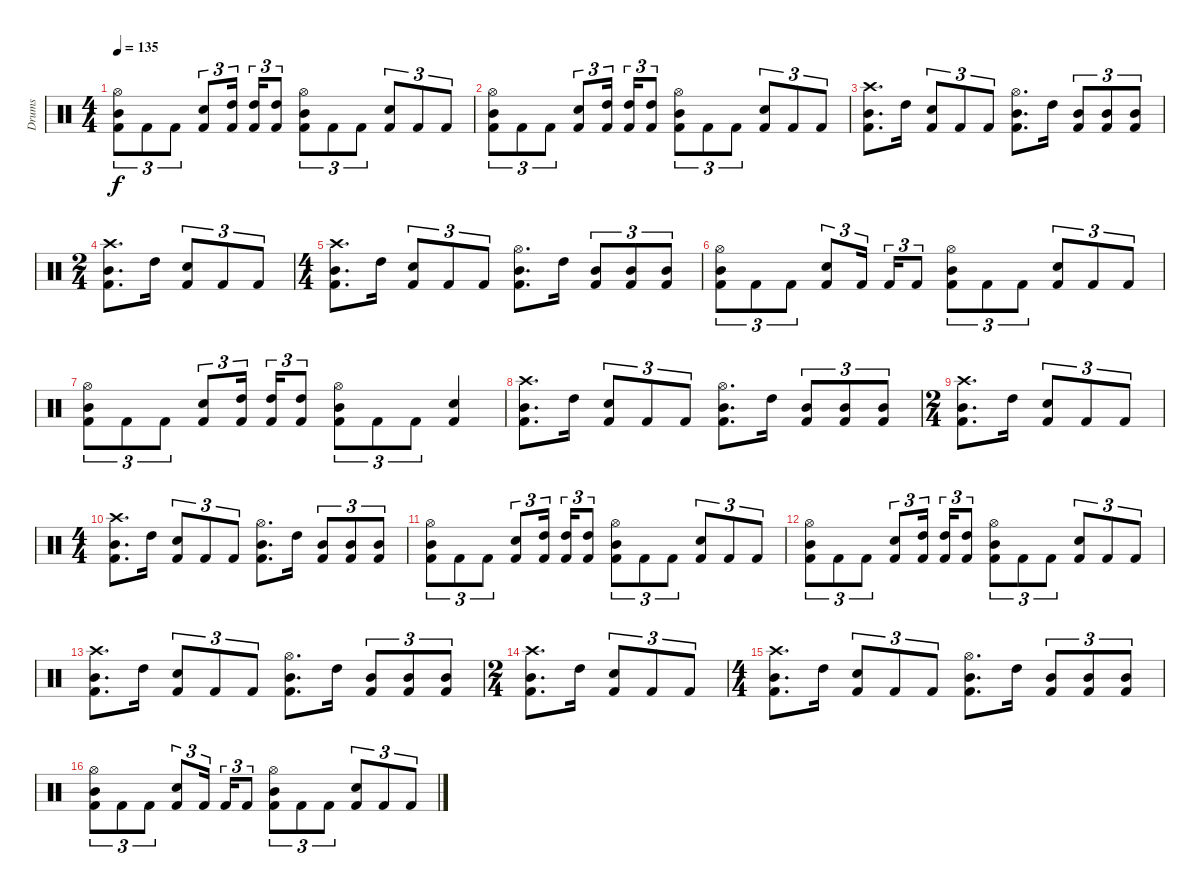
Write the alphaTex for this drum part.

\track ("Drums" "Drums") {instrument percussion}
\staff {score}
\articulation defaults
\ts (4 4)
\tempo 135
\clef neutral
\ks c
("Hi-Hat (open)" "Mid Tom (hit)" "Kick (hit) 2").8{tu (3 2) dy f} "Kick (hit) 2".8{tu (3 2)} "Kick (hit) 2".8{tu (3 2)} ("Snare (hit) 2" "Kick (hit) 2").8{tu (3 2)} ("High Tom (hit)" "Kick (hit) 2").16{tu (3 2)} ("High Tom (hit)" "Kick (hit) 2").16{tu (3 2)} ("High Tom (hit)" "Kick (hit) 2").8{tu (3 2)} ("Hi-Hat (open)" "Mid Tom (hit)" "Kick (hit) 2").8{tu (3 2)} "Kick (hit) 2".8{tu (3 2)} "Kick (hit) 2".8{tu (3 2)} ("Snare (hit) 2" "Kick (hit) 2").8{tu (3 2)} "Kick (hit) 2".8{tu (3 2)} "Kick (hit) 2".8{tu (3 2)} |
("Hi-Hat (open)" "Mid Tom (hit)" "Kick (hit) 2").8{tu (3 2)} "Kick (hit) 2".8{tu (3 2)} "Kick (hit) 2".8{tu (3 2)} ("Snare (hit) 2" "Kick (hit) 2").8{tu (3 2)} ("High Tom (hit)" "Kick (hit) 2").16{tu (3 2)} ("High Tom (hit)" "Kick (hit) 2").16{tu (3 2)} ("High Tom (hit)" "Kick (hit) 2").8{tu (3 2)} ("Hi-Hat (open)" "Mid Tom (hit)" "Kick (hit) 2").8{tu (3 2)} "Kick (hit) 2".8{tu (3 2)} "Kick (hit) 2".8{tu (3 2)} ("Snare (hit) 2" "Kick (hit) 2").8{tu (3 2)} "Kick (hit) 2".8{tu (3 2)} "Kick (hit) 2".8{tu (3 2)} |
("Crash high (hit)" "Mid Tom (hit)" "Kick (hit) 2").8{d} "High Tom (hit)".16 ("Snare (hit) 2" "Kick (hit) 2").8{tu (3 2)} "Kick (hit) 2".8{tu (3 2)} "Kick (hit) 2".8{tu (3 2)} ("Hi-Hat (open)" "Mid Tom (hit)" "Kick (hit) 2").8{d} "High Tom (hit)".16 ("Mid Tom (hit)" "Kick (hit) 2").8{tu (3 2)} ("Mid Tom (hit)" "Kick (hit) 2").8{tu (3 2)} ("Mid Tom (hit)" "Kick (hit) 2").8{tu (3 2)} |
\ts (2 4)
("Crash high (hit)" "Mid Tom (hit)" "Kick (hit) 2").8{d} "High Tom (hit)".16 ("Snare (hit) 2" "Kick (hit) 2").8{tu (3 2)} "Kick (hit) 2".8{tu (3 2)} "Kick (hit) 2".8{tu (3 2)} |
\ts (4 4)
("Crash high (hit)" "Mid Tom (hit)" "Kick (hit) 2").8{d} "High Tom (hit)".16 ("Snare (hit) 2" "Kick (hit) 2").8{tu (3 2)} "Kick (hit) 2".8{tu (3 2)} "Kick (hit) 2".8{tu (3 2)} ("Hi-Hat (open)" "Mid Tom (hit)" "Kick (hit) 2").8{d} "High Tom (hit)".16 ("Mid Tom (hit)" "Kick (hit) 2").8{tu (3 2)} ("Mid Tom (hit)" "Kick (hit) 2").8{tu (3 2)} ("Mid Tom (hit)" "Kick (hit) 2").8{tu (3 2)} |
("Hi-Hat (open)" "Mid Tom (hit)" "Kick (hit) 2").8{tu (3 2)} "Kick (hit) 2".8{tu (3 2)} "Kick (hit) 2".8{tu (3 2)} ("Snare (hit) 2" "Kick (hit) 2").8{tu (3 2)} "Kick (hit) 2".16{tu (3 2)} "Kick (hit) 2".16{tu (3 2)} "Kick (hit) 2".8{tu (3 2)} ("Hi-Hat (open)" "Mid Tom (hit)" "Kick (hit) 2").8{tu (3 2)} "Kick (hit) 2".8{tu (3 2)} "Kick (hit) 2".8{tu (3 2)} ("Snare (hit) 2" "Kick (hit) 2").8{tu (3 2)} "Kick (hit) 2".8{tu (3 2)} "Kick (hit) 2".8{tu (3 2)} |
("Hi-Hat (open)" "Mid Tom (hit)" "Kick (hit) 2").8{tu (3 2)} "Kick (hit) 2".8{tu (3 2)} "Kick (hit) 2".8{tu (3 2)} ("Snare (hit) 2" "Kick (hit) 2").8{tu (3 2)} ("High Tom (hit)" "Kick (hit) 2").16{tu (3 2)} ("High Tom (hit)" "Kick (hit) 2").16{tu (3 2)} ("High Tom (hit)" "Kick (hit) 2").8{tu (3 2)} ("Hi-Hat (open)" "Mid Tom (hit)" "Kick (hit) 2").8{tu (3 2)} "Kick (hit) 2".8{tu (3 2)} "Kick (hit) 2".8{tu (3 2)} ("Snare (hit) 2" "Kick (hit) 2").4 |
("Crash high (hit)" "Mid Tom (hit)" "Kick (hit) 2").8{d} "High Tom (hit)".16 ("Snare (hit) 2" "Kick (hit) 2").8{tu (3 2)} "Kick (hit) 2".8{tu (3 2)} "Kick (hit) 2".8{tu (3 2)} ("Hi-Hat (open)" "Mid Tom (hit)" "Kick (hit) 2").8{d} "High Tom (hit)".16 ("Mid Tom (hit)" "Kick (hit) 2").8{tu (3 2)} ("Mid Tom (hit)" "Kick (hit) 2").8{tu (3 2)} ("Mid Tom (hit)" "Kick (hit) 2").8{tu (3 2)} |
\ts (2 4)
("Crash high (hit)" "Mid Tom (hit)" "Kick (hit) 2").8{d} "High Tom (hit)".16 ("Snare (hit) 2" "Kick (hit) 2").8{tu (3 2)} "Kick (hit) 2".8{tu (3 2)} "Kick (hit) 2".8{tu (3 2)} |
\ts (4 4)
("Crash high (hit)" "Mid Tom (hit)" "Kick (hit) 2").8{d} "High Tom (hit)".16 ("Snare (hit) 2" "Kick (hit) 2").8{tu (3 2)} "Kick (hit) 2".8{tu (3 2)} "Kick (hit) 2".8{tu (3 2)} ("Hi-Hat (open)" "Mid Tom (hit)" "Kick (hit) 2").8{d} "High Tom (hit)".16 ("Mid Tom (hit)" "Kick (hit) 2").8{tu (3 2)} ("Mid Tom (hit)" "Kick (hit) 2").8{tu (3 2)} ("Mid Tom (hit)" "Kick (hit) 2").8{tu (3 2)} |
("Hi-Hat (open)" "Mid Tom (hit)" "Kick (hit) 2").8{tu (3 2)} "Kick (hit) 2".8{tu (3 2)} "Kick (hit) 2".8{tu (3 2)} ("Snare (hit) 2" "Kick (hit) 2").8{tu (3 2)} ("High Tom (hit)" "Kick (hit) 2").16{tu (3 2)} ("High Tom (hit)" "Kick (hit) 2").16{tu (3 2)} ("High Tom (hit)" "Kick (hit) 2").8{tu (3 2)} ("Hi-Hat (open)" "Mid Tom (hit)" "Kick (hit) 2").8{tu (3 2)} "Kick (hit) 2".8{tu (3 2)} "Kick (hit) 2".8{tu (3 2)} ("Snare (hit) 2" "Kick (hit) 2").8{tu (3 2)} "Kick (hit) 2".8{tu (3 2)} "Kick (hit) 2".8{tu (3 2)} |
("Hi-Hat (open)" "Mid Tom (hit)" "Kick (hit) 2").8{tu (3 2)} "Kick (hit) 2".8{tu (3 2)} "Kick (hit) 2".8{tu (3 2)} ("Snare (hit) 2" "Kick (hit) 2").8{tu (3 2)} ("High Tom (hit)" "Kick (hit) 2").16{tu (3 2)} ("High Tom (hit)" "Kick (hit) 2").16{tu (3 2)} ("High Tom (hit)" "Kick (hit) 2").8{tu (3 2)} ("Hi-Hat (open)" "Mid Tom (hit)" "Kick (hit) 2").8{tu (3 2)} "Kick (hit) 2".8{tu (3 2)} "Kick (hit) 2".8{tu (3 2)} ("Snare (hit) 2" "Kick (hit) 2").8{tu (3 2)} "Kick (hit) 2".8{tu (3 2)} "Kick (hit) 2".8{tu (3 2)} |
("Crash high (hit)" "Mid Tom (hit)" "Kick (hit) 2").8{d} "High Tom (hit)".16 ("Snare (hit) 2" "Kick (hit) 2").8{tu (3 2)} "Kick (hit) 2".8{tu (3 2)} "Kick (hit) 2".8{tu (3 2)} ("Hi-Hat (open)" "Mid Tom (hit)" "Kick (hit) 2").8{d} "High Tom (hit)".16 ("Mid Tom (hit)" "Kick (hit) 2").8{tu (3 2)} ("Mid Tom (hit)" "Kick (hit) 2").8{tu (3 2)} ("Mid Tom (hit)" "Kick (hit) 2").8{tu (3 2)} |
\ts (2 4)
("Crash high (hit)" "Mid Tom (hit)" "Kick (hit) 2").8{d} "High Tom (hit)".16 ("Snare (hit) 2" "Kick (hit) 2").8{tu (3 2)} "Kick (hit) 2".8{tu (3 2)} "Kick (hit) 2".8{tu (3 2)} |
\ts (4 4)
("Crash high (hit)" "Mid Tom (hit)" "Kick (hit) 2").8{d} "High Tom (hit)".16 ("Snare (hit) 2" "Kick (hit) 2").8{tu (3 2)} "Kick (hit) 2".8{tu (3 2)} "Kick (hit) 2".8{tu (3 2)} ("Hi-Hat (open)" "Mid Tom (hit)" "Kick (hit) 2").8{d} "High Tom (hit)".16 ("Mid Tom (hit)" "Kick (hit) 2").8{tu (3 2)} ("Mid Tom (hit)" "Kick (hit) 2").8{tu (3 2)} ("Mid Tom (hit)" "Kick (hit) 2").8{tu (3 2)} |
("Hi-Hat (open)" "Mid Tom (hit)" "Kick (hit) 2").8{tu (3 2)} "Kick (hit) 2".8{tu (3 2)} "Kick (hit) 2".8{tu (3 2)} ("Snare (hit) 2" "Kick (hit) 2").8{tu (3 2)} "Kick (hit) 2".16{tu (3 2)} "Kick (hit) 2".16{tu (3 2)} "Kick (hit) 2".8{tu (3 2)} ("Hi-Hat (open)" "Mid Tom (hit)" "Kick (hit) 2").8{tu (3 2)} "Kick (hit) 2".8{tu (3 2)} "Kick (hit) 2".8{tu (3 2)} ("Snare (hit) 2" "Kick (hit) 2").8{tu (3 2)} "Kick (hit) 2".8{tu (3 2)} "Kick (hit) 2".8{tu (3 2)}
